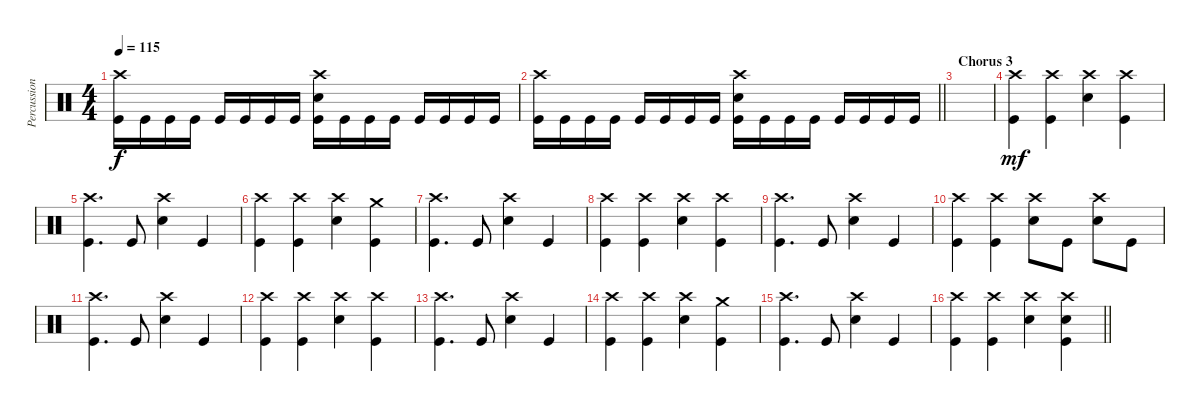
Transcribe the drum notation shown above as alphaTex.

\track ("Percussion" "Percussion") {instrument percussion}
\staff {score}
\articulation defaults
\ts (4 4)
\tempo 115
\clef neutral
\ks c
("Crash high (hit)" "Kick (hit)").16{dy f} "Kick (hit)".16 "Kick (hit)".16 "Kick (hit)".16 "Kick (hit)".16 "Kick (hit)".16 "Kick (hit)".16 "Kick (hit)".16 ("Crash high (hit)" "Snare (hit) 2" "Kick (hit)").16 "Kick (hit)".16 "Kick (hit)".16 "Kick (hit)".16 "Kick (hit)".16 "Kick (hit)".16 "Kick (hit)".16 "Kick (hit)".16 |
\barLineRight lightlight
("Crash high (hit)" "Kick (hit)").16 "Kick (hit)".16 "Kick (hit)".16 "Kick (hit)".16 "Kick (hit)".16 "Kick (hit)".16 "Kick (hit)".16 "Kick (hit)".16 ("Crash high (hit)" "Snare (hit) 2" "Kick (hit)").16 "Kick (hit)".16 "Kick (hit)".16 "Kick (hit)".16 "Kick (hit)".16 "Kick (hit)".16 "Kick (hit)".16 "Kick (hit)".16 |
\section ("" "Chorus 3")
|
("Crash high (hit)" "Kick (hit)").4{dy mf} ("Crash high (hit)" "Kick (hit)").4 ("Snare (hit) 2" "Crash high (hit)").4 ("Crash high (hit)" "Kick (hit)").4 |
("Crash high (hit)" "Kick (hit)").4{d} "Kick (hit)".8 ("Snare (hit) 2" "Crash high (hit)").4 "Kick (hit)".4 |
("Crash high (hit)" "Kick (hit)").4 ("Crash high (hit)" "Kick (hit)").4 ("Snare (hit) 2" "Crash high (hit)").4 ("Crash medium (hit)" "Kick (hit)").4 |
("Crash high (hit)" "Kick (hit)").4{d} "Kick (hit)".8 ("Snare (hit) 2" "Crash high (hit)").4 "Kick (hit)".4 |
("Crash high (hit)" "Kick (hit)").4 ("Crash high (hit)" "Kick (hit)").4 ("Snare (hit) 2" "Crash high (hit)").4 ("Crash high (hit)" "Kick (hit)").4 |
("Crash high (hit)" "Kick (hit)").4{d} "Kick (hit)".8 ("Snare (hit) 2" "Crash high (hit)").4 "Kick (hit)".4 |
("Crash high (hit)" "Kick (hit)").4 ("Crash high (hit)" "Kick (hit)").4 ("Snare (hit) 2" "Crash high (hit)").8 "Kick (hit)".8 ("Crash high (hit)" "Snare (hit) 2").8 "Kick (hit)".8 |
("Crash high (hit)" "Kick (hit)").4{d} "Kick (hit)".8 ("Snare (hit) 2" "Crash high (hit)").4 "Kick (hit)".4 |
("Crash high (hit)" "Kick (hit)").4 ("Crash high (hit)" "Kick (hit)").4 ("Snare (hit) 2" "Crash high (hit)").4 ("Crash high (hit)" "Kick (hit)").4 |
("Crash high (hit)" "Kick (hit)").4{d} "Kick (hit)".8 ("Snare (hit) 2" "Crash high (hit)").4 "Kick (hit)".4 |
("Crash high (hit)" "Kick (hit)").4 ("Crash high (hit)" "Kick (hit)").4 ("Snare (hit) 2" "Crash high (hit)").4 ("Crash medium (hit)" "Kick (hit)").4 |
("Crash high (hit)" "Kick (hit)").4{d} "Kick (hit)".8 ("Snare (hit) 2" "Crash high (hit)").4 "Kick (hit)".4 |
\barLineRight lightlight
("Crash high (hit)" "Kick (hit)").4 ("Crash high (hit)" "Kick (hit)").4 ("Snare (hit) 2" "Crash high (hit)").4 ("Snare (hit) 2" "Crash high (hit)" "Kick (hit)").4
